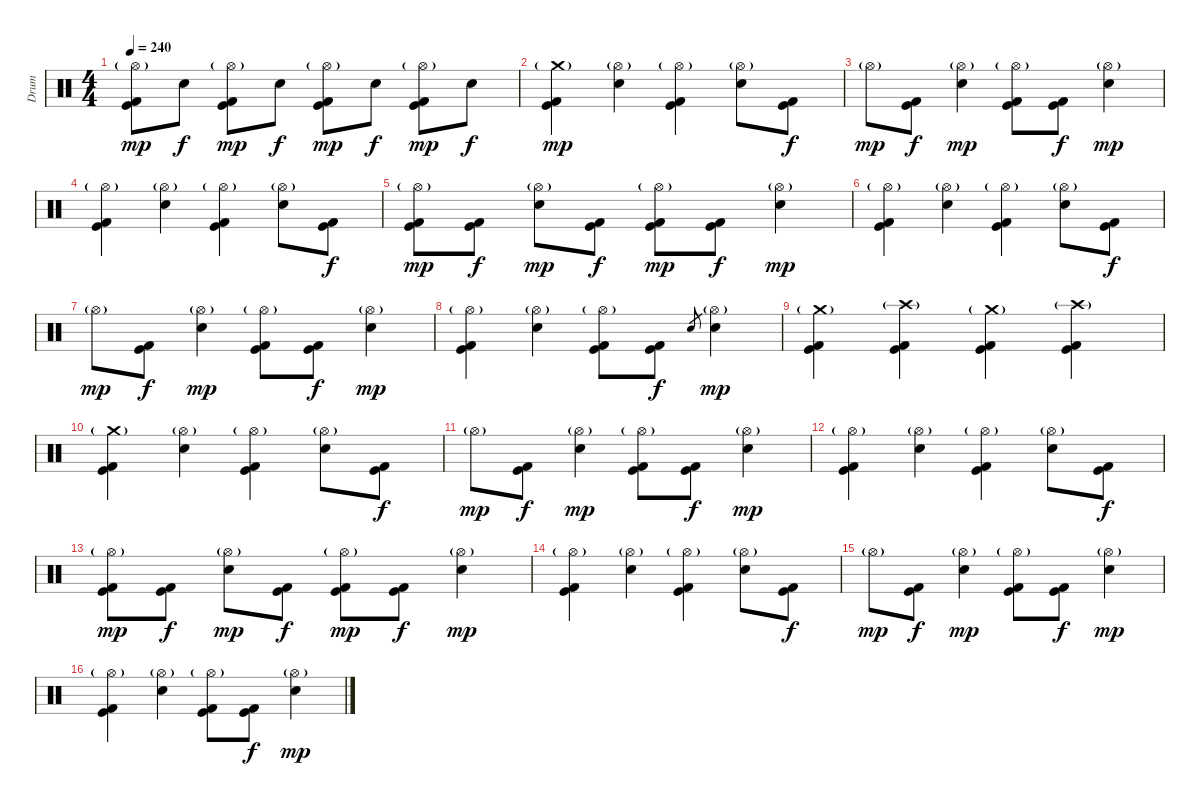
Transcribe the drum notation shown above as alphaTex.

\track ("Drum" "Drum") {instrument percussion}
\staff {score}
\articulation defaults
\ts (4 4)
\tempo 240
\clef neutral
\ks c
("Hi-Hat (open)"{g} "Kick (hit)" "Kick (hit) 2").8{dy mp} "Electric Snare (hit)".8{dy f} ("Hi-Hat (open)"{g} "Kick (hit)" "Kick (hit) 2").8{dy mp} "Electric Snare (hit)".8{dy f} ("Hi-Hat (open)"{g} "Kick (hit)" "Kick (hit) 2").8{dy mp} "Electric Snare (hit)".8{dy f} ("Hi-Hat (open)"{g} "Kick (hit)" "Kick (hit) 2").8{dy mp} "Electric Snare (hit)".8{dy f} |
("Crash medium (hit)"{g} "Kick (hit)" "Kick (hit) 2").4{dy mp} ("Hi-Hat (open)"{g} "Electric Snare (hit)").4 ("Hi-Hat (open)"{g} "Kick (hit)" "Kick (hit) 2").4 ("Hi-Hat (open)"{g} "Electric Snare (hit)").8 ("Kick (hit)" "Kick (hit) 2").8{dy f} |
"Hi-Hat (open)"{g}.8{dy mp} ("Kick (hit)" "Kick (hit) 2").8{dy f} ("Hi-Hat (open)"{g} "Electric Snare (hit)").4{dy mp} ("Hi-Hat (open)"{g} "Kick (hit)" "Kick (hit) 2").8 ("Kick (hit)" "Kick (hit) 2").8{dy f} ("Hi-Hat (open)"{g} "Electric Snare (hit)").4{dy mp} |
("Hi-Hat (open)"{g} "Kick (hit)" "Kick (hit) 2").4 ("Hi-Hat (open)"{g} "Electric Snare (hit)").4 ("Hi-Hat (open)"{g} "Kick (hit)" "Kick (hit) 2").4 ("Hi-Hat (open)"{g} "Electric Snare (hit)").8 ("Kick (hit)" "Kick (hit) 2").8{dy f} |
("Hi-Hat (open)"{g} "Kick (hit)" "Kick (hit) 2").8{dy mp} ("Kick (hit)" "Kick (hit) 2").8{dy f} ("Hi-Hat (open)"{g} "Electric Snare (hit)").8{dy mp} ("Kick (hit)" "Kick (hit) 2").8{dy f} ("Hi-Hat (open)"{g} "Kick (hit)" "Kick (hit) 2").8{dy mp} ("Kick (hit)" "Kick (hit) 2").8{dy f} ("Hi-Hat (open)"{g} "Electric Snare (hit)").4{dy mp} |
("Hi-Hat (open)"{g} "Kick (hit)" "Kick (hit) 2").4 ("Hi-Hat (open)"{g} "Electric Snare (hit)").4 ("Hi-Hat (open)"{g} "Kick (hit)" "Kick (hit) 2").4 ("Hi-Hat (open)"{g} "Electric Snare (hit)").8 ("Kick (hit)" "Kick (hit) 2").8{dy f} |
"Hi-Hat (open)"{g}.8{dy mp} ("Kick (hit)" "Kick (hit) 2").8{dy f} ("Hi-Hat (open)"{g} "Electric Snare (hit)").4{dy mp} ("Hi-Hat (open)"{g} "Kick (hit)" "Kick (hit) 2").8 ("Kick (hit)" "Kick (hit) 2").8{dy f} ("Hi-Hat (open)"{g} "Electric Snare (hit)").4{dy mp} |
("Hi-Hat (open)"{g} "Kick (hit)" "Kick (hit) 2").4 ("Hi-Hat (open)"{g} "Electric Snare (hit)").4 ("Hi-Hat (open)"{g} "Kick (hit)" "Kick (hit) 2").8 ("Kick (hit)" "Kick (hit) 2").8{dy f} "Electric Snare (hit)".8{gr} ("Hi-Hat (open)"{g} "Electric Snare (hit)").4{dy mp} |
("Crash medium (hit)"{g} "Kick (hit)" "Kick (hit) 2").4 ("Crash high (hit)"{g} "Kick (hit)" "Kick (hit) 2").4 ("Crash medium (hit)"{g} "Kick (hit)" "Kick (hit) 2").4 ("Crash high (hit)"{g} "Kick (hit)" "Kick (hit) 2").4 |
("Crash medium (hit)"{g} "Kick (hit)" "Kick (hit) 2").4 ("Hi-Hat (open)"{g} "Electric Snare (hit)").4 ("Hi-Hat (open)"{g} "Kick (hit)" "Kick (hit) 2").4 ("Hi-Hat (open)"{g} "Electric Snare (hit)").8 ("Kick (hit)" "Kick (hit) 2").8{dy f} |
"Hi-Hat (open)"{g}.8{dy mp} ("Kick (hit)" "Kick (hit) 2").8{dy f} ("Hi-Hat (open)"{g} "Electric Snare (hit)").4{dy mp} ("Hi-Hat (open)"{g} "Kick (hit)" "Kick (hit) 2").8 ("Kick (hit)" "Kick (hit) 2").8{dy f} ("Hi-Hat (open)"{g} "Electric Snare (hit)").4{dy mp} |
("Hi-Hat (open)"{g} "Kick (hit)" "Kick (hit) 2").4 ("Hi-Hat (open)"{g} "Electric Snare (hit)").4 ("Hi-Hat (open)"{g} "Kick (hit)" "Kick (hit) 2").4 ("Hi-Hat (open)"{g} "Electric Snare (hit)").8 ("Kick (hit)" "Kick (hit) 2").8{dy f} |
("Hi-Hat (open)"{g} "Kick (hit)" "Kick (hit) 2").8{dy mp} ("Kick (hit)" "Kick (hit) 2").8{dy f} ("Hi-Hat (open)"{g} "Electric Snare (hit)").8{dy mp} ("Kick (hit)" "Kick (hit) 2").8{dy f} ("Hi-Hat (open)"{g} "Kick (hit)" "Kick (hit) 2").8{dy mp} ("Kick (hit)" "Kick (hit) 2").8{dy f} ("Hi-Hat (open)"{g} "Electric Snare (hit)").4{dy mp} |
("Hi-Hat (open)"{g} "Kick (hit)" "Kick (hit) 2").4 ("Hi-Hat (open)"{g} "Electric Snare (hit)").4 ("Hi-Hat (open)"{g} "Kick (hit)" "Kick (hit) 2").4 ("Hi-Hat (open)"{g} "Electric Snare (hit)").8 ("Kick (hit)" "Kick (hit) 2").8{dy f} |
"Hi-Hat (open)"{g}.8{dy mp} ("Kick (hit)" "Kick (hit) 2").8{dy f} ("Hi-Hat (open)"{g} "Electric Snare (hit)").4{dy mp} ("Hi-Hat (open)"{g} "Kick (hit)" "Kick (hit) 2").8 ("Kick (hit)" "Kick (hit) 2").8{dy f} ("Hi-Hat (open)"{g} "Electric Snare (hit)").4{dy mp} |
("Hi-Hat (open)"{g} "Kick (hit)" "Kick (hit) 2").4 ("Hi-Hat (open)"{g} "Electric Snare (hit)").4 ("Hi-Hat (open)"{g} "Kick (hit)" "Kick (hit) 2").8 ("Kick (hit)" "Kick (hit) 2").8{dy f} ("Hi-Hat (open)"{g} "Electric Snare (hit)").4{dy mp}
